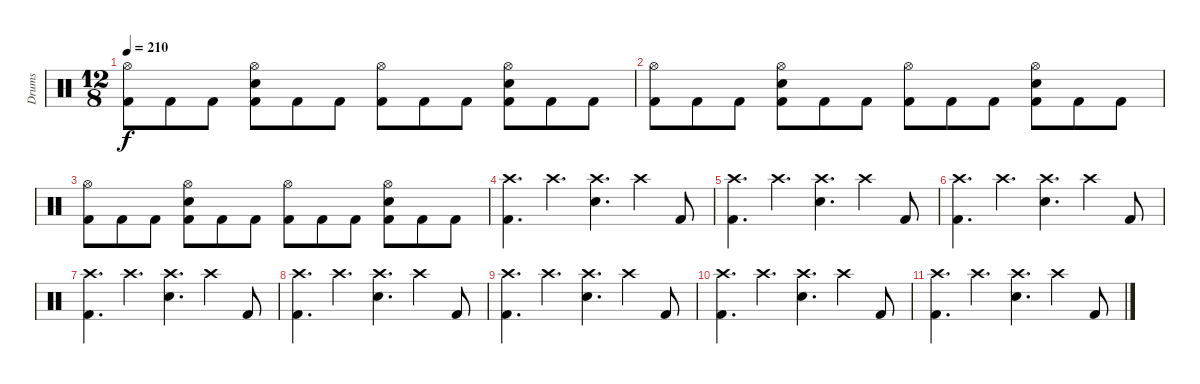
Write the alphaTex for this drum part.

\track ("Drums" "Drums") {instrument percussion}
\staff {score}
\articulation defaults
\ts (12 8)
\tempo 210
\clef neutral
\ks c
("Hi-Hat (open)" "Kick (hit) 2").8{dy f} "Kick (hit) 2".8 "Kick (hit) 2".8 ("Hi-Hat (open)" "Electric Snare (hit)" "Kick (hit) 2").8 "Kick (hit) 2".8 "Kick (hit) 2".8 ("Hi-Hat (open)" "Kick (hit) 2").8 "Kick (hit) 2".8 "Kick (hit) 2".8 ("Hi-Hat (open)" "Electric Snare (hit)" "Kick (hit) 2").8 "Kick (hit) 2".8 "Kick (hit) 2".8 |
("Hi-Hat (open)" "Kick (hit) 2").8 "Kick (hit) 2".8 "Kick (hit) 2".8 ("Hi-Hat (open)" "Electric Snare (hit)" "Kick (hit) 2").8 "Kick (hit) 2".8 "Kick (hit) 2".8 ("Hi-Hat (open)" "Kick (hit) 2").8 "Kick (hit) 2".8 "Kick (hit) 2".8 ("Hi-Hat (open)" "Electric Snare (hit)" "Kick (hit) 2").8 "Kick (hit) 2".8 "Kick (hit) 2".8 |
("Hi-Hat (open)" "Kick (hit) 2").8 "Kick (hit) 2".8 "Kick (hit) 2".8 ("Hi-Hat (open)" "Electric Snare (hit)" "Kick (hit) 2").8 "Kick (hit) 2".8 "Kick (hit) 2".8 ("Hi-Hat (open)" "Kick (hit) 2").8 "Kick (hit) 2".8 "Kick (hit) 2".8 ("Hi-Hat (open)" "Electric Snare (hit)" "Kick (hit) 2").8 "Kick (hit) 2".8 "Kick (hit) 2".8 |
("Crash high (hit)" "Kick (hit) 2").4{d} "Crash high (hit)".4{d} ("Crash high (hit)" "Electric Snare (hit)").4{d} "Crash high (hit)".4 "Kick (hit) 2".8 |
("Crash high (hit)" "Kick (hit) 2").4{d} "Crash high (hit)".4{d} ("Crash high (hit)" "Electric Snare (hit)").4{d} "Crash high (hit)".4 "Kick (hit) 2".8 |
("Crash high (hit)" "Kick (hit) 2").4{d} "Crash high (hit)".4{d} ("Crash high (hit)" "Electric Snare (hit)").4{d} "Crash high (hit)".4 "Kick (hit) 2".8 |
("Crash high (hit)" "Kick (hit) 2").4{d} "Crash high (hit)".4{d} ("Crash high (hit)" "Electric Snare (hit)").4{d} "Crash high (hit)".4 "Kick (hit) 2".8 |
("Crash high (hit)" "Kick (hit) 2").4{d} "Crash high (hit)".4{d} ("Crash high (hit)" "Electric Snare (hit)").4{d} "Crash high (hit)".4 "Kick (hit) 2".8 |
("Crash high (hit)" "Kick (hit) 2").4{d} "Crash high (hit)".4{d} ("Crash high (hit)" "Electric Snare (hit)").4{d} "Crash high (hit)".4 "Kick (hit) 2".8 |
("Crash high (hit)" "Kick (hit) 2").4{d} "Crash high (hit)".4{d} ("Crash high (hit)" "Electric Snare (hit)").4{d} "Crash high (hit)".4 "Kick (hit) 2".8 |
("Crash high (hit)" "Kick (hit) 2").4{d} "Crash high (hit)".4{d} ("Crash high (hit)" "Electric Snare (hit)").4{d} "Crash high (hit)".4 "Kick (hit) 2".8
